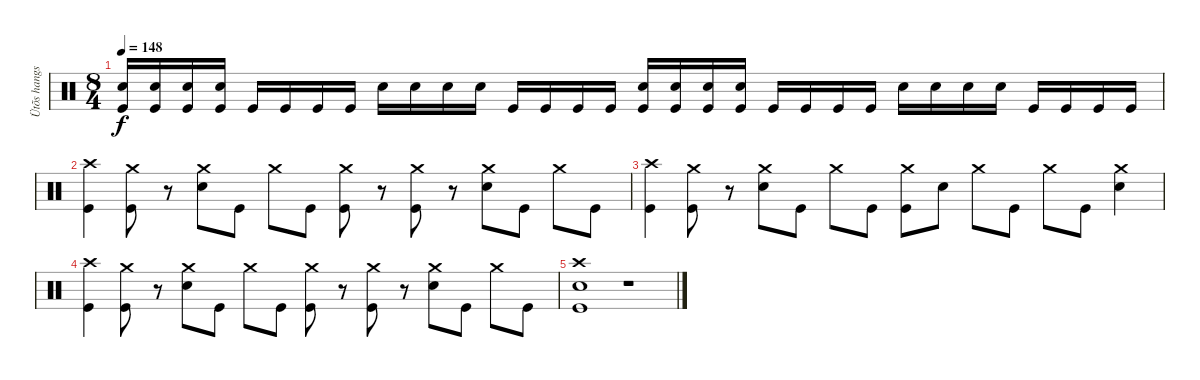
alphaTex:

\track ("Ütõs hangszer" "Ütõs hangs") {instrument percussion}
\staff {score}
\articulation defaults
\ts (8 4)
\tempo 148
\clef neutral
\ks c
("Electric Snare (hit)" "Kick (hit)").16{dy f} ("Electric Snare (hit)" "Kick (hit)").16 ("Electric Snare (hit)" "Kick (hit)").16 ("Electric Snare (hit)" "Kick (hit)").16 "Kick (hit)".16 "Kick (hit)".16 "Kick (hit)".16 "Kick (hit)".16 "Electric Snare (hit)".16 "Electric Snare (hit)".16 "Electric Snare (hit)".16 "Electric Snare (hit)".16 "Kick (hit)".16 "Kick (hit)".16 "Kick (hit)".16 "Kick (hit)".16 ("Electric Snare (hit)" "Kick (hit)").16 ("Electric Snare (hit)" "Kick (hit)").16 ("Electric Snare (hit)" "Kick (hit)").16 ("Electric Snare (hit)" "Kick (hit)").16 "Kick (hit)".16 "Kick (hit)".16 "Kick (hit)".16 "Kick (hit)".16 "Electric Snare (hit)".16 "Electric Snare (hit)".16 "Electric Snare (hit)".16 "Electric Snare (hit)".16 "Kick (hit)".16 "Kick (hit)".16 "Kick (hit)".16 "Kick (hit)".16 |
("Crash high (hit)" "Kick (hit)").4 ("Crash medium (hit)" "Kick (hit)").8 r.8 ("Crash medium (hit)" "Electric Snare (hit)").8 "Kick (hit)".8 "Crash medium (hit)".8 "Kick (hit)".8 ("Crash medium (hit)" "Kick (hit)").8 r.8 ("Crash medium (hit)" "Kick (hit)").8 r.8 ("Crash medium (hit)" "Electric Snare (hit)").8 "Kick (hit)".8 "Crash medium (hit)".8 "Kick (hit)".8 |
("Crash high (hit)" "Kick (hit)").4 ("Crash medium (hit)" "Kick (hit)").8 r.8 ("Crash medium (hit)" "Electric Snare (hit)").8 "Kick (hit)".8 "Crash medium (hit)".8 "Kick (hit)".8 ("Crash medium (hit)" "Kick (hit)").8 "Electric Snare (hit)".8 "Crash medium (hit)".8 "Kick (hit)".8 "Crash medium (hit)".8 "Kick (hit)".8 ("Crash medium (hit)" "Electric Snare (hit)").4 |
("Crash high (hit)" "Kick (hit)").4 ("Crash medium (hit)" "Kick (hit)").8 r.8 ("Crash medium (hit)" "Electric Snare (hit)").8 "Kick (hit)".8 "Crash medium (hit)".8 "Kick (hit)".8 ("Crash medium (hit)" "Kick (hit)").8 r.8 ("Crash medium (hit)" "Kick (hit)").8 r.8 ("Crash medium (hit)" "Electric Snare (hit)").8 "Kick (hit)".8 "Crash medium (hit)".8 "Kick (hit)".8 |
("Crash high (hit)" "Electric Snare (hit)" "Kick (hit)").1 r.1
